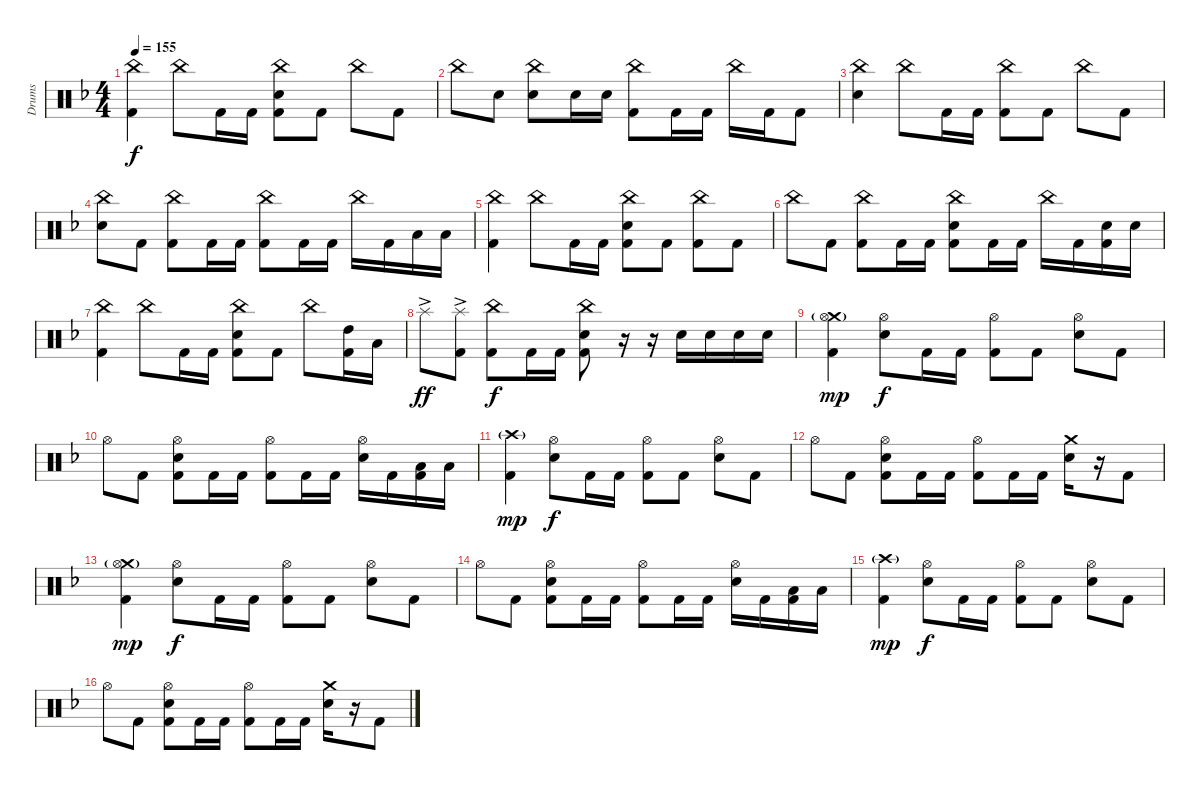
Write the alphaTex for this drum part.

\track ("Drums" "Drums") {instrument percussion}
\staff {score}
\articulation defaults
\ts (4 4)
\tempo 155
\clef neutral
\ks f
("China (hit)" "Kick (hit) 2").4{dy f} "China (hit)".8 "Kick (hit) 2".16 "Kick (hit) 2".16 ("China (hit)" "Electric Snare (hit)" "Kick (hit) 2").8 "Kick (hit) 2".8 "China (hit)".8 "Kick (hit) 2".8 |
"China (hit)".8 "Electric Snare (hit)".8 ("China (hit)" "Electric Snare (hit)").8 "Electric Snare (hit)".16 "Electric Snare (hit)".16 ("China (hit)" "Kick (hit) 2").8 "Kick (hit) 2".16 "Kick (hit) 2".16 "China (hit)".16 "Kick (hit) 2".16 "Kick (hit) 2".8 |
("China (hit)" "Electric Snare (hit)").4 "China (hit)".8 "Kick (hit) 2".16 "Kick (hit) 2".16 ("China (hit)" "Kick (hit) 2").8 "Kick (hit) 2".8 "China (hit)".8 "Kick (hit) 2".8 |
("China (hit)" "Electric Snare (hit)").8 "Kick (hit) 2".8 ("China (hit)" "Kick (hit) 2").8 "Kick (hit) 2".16 "Kick (hit) 2".16 ("China (hit)" "Kick (hit) 2").8 "Kick (hit) 2".16 "Kick (hit) 2".16 "China (hit)".16 "Kick (hit) 2".16 "Low Tom (hit)".16 "Low Tom (hit)".16 |
("China (hit)" "Kick (hit) 2").4 "China (hit)".8 "Kick (hit) 2".16 "Kick (hit) 2".16 ("China (hit)" "Electric Snare (hit)" "Kick (hit) 2").8 "Kick (hit) 2".8 ("China (hit)" "Kick (hit) 2").8 "Kick (hit) 2".8 |
"China (hit)".8 "Kick (hit) 2".8 ("China (hit)" "Kick (hit) 2").8 "Kick (hit) 2".16 "Kick (hit) 2".16 ("China (hit)" "Electric Snare (hit)" "Kick (hit) 2").8 "Kick (hit) 2".16 "Kick (hit) 2".16 "China (hit)".16 "Kick (hit) 2".16 ("Electric Snare (hit)" "Kick (hit) 2").16 "Electric Snare (hit)".16 |
("China (hit)" "Kick (hit) 2").4 "China (hit)".8 "Kick (hit) 2".16 "Kick (hit) 2".16 ("China (hit)" "Electric Snare (hit)" "Kick (hit) 2").8 "Kick (hit) 2".8 "China (hit)".8 ("High Tom (hit)" "Kick (hit) 2").16 "Low Tom (hit)".16 |
"Splash (hit)"{ac}.8{dy ff} ("Splash (hit)"{ac} "Kick (hit) 2").8 ("China (hit)" "Kick (hit) 2").8{dy f} "Kick (hit) 2".16 "Kick (hit) 2".16 ("China (hit)" "Electric Snare (hit)" "Kick (hit) 2").8 r.16 r.16 "Electric Snare (hit)".16 "Electric Snare (hit)".16 "Electric Snare (hit)".16 "Electric Snare (hit)".16 |
("Crash medium (hit)"{g} "Hi-Hat (open)" "Kick (hit) 2").4{dy mp} ("Hi-Hat (open)" "Electric Snare (hit)").8{dy f} "Kick (hit) 2".16 "Kick (hit) 2".16 ("Hi-Hat (open)" "Kick (hit) 2").8 "Kick (hit) 2".8 ("Hi-Hat (open)" "Electric Snare (hit)").8 "Kick (hit) 2".8 |
"Hi-Hat (open)".8 "Kick (hit) 2".8 ("Hi-Hat (open)" "Electric Snare (hit)" "Kick (hit) 2").8 "Kick (hit) 2".16 "Kick (hit) 2".16 ("Hi-Hat (open)" "Kick (hit) 2").8 "Kick (hit) 2".16 "Kick (hit) 2".16 ("Hi-Hat (open)" "Electric Snare (hit)").16 "Kick (hit) 2".16 ("Low Tom (hit)" "Kick (hit) 2").16 "Low Tom (hit)".16 |
("Crash high (hit)"{g} "Kick (hit) 2").4{dy mp} ("Hi-Hat (open)" "Electric Snare (hit)").8{dy f} "Kick (hit) 2".16 "Kick (hit) 2".16 ("Hi-Hat (open)" "Kick (hit) 2").8 "Kick (hit) 2".8 ("Hi-Hat (open)" "Electric Snare (hit)").8 "Kick (hit) 2".8 |
"Hi-Hat (open)".8 "Kick (hit) 2".8 ("Hi-Hat (open)" "Electric Snare (hit)" "Kick (hit) 2").8 "Kick (hit) 2".16 "Kick (hit) 2".16 ("Hi-Hat (open)" "Kick (hit) 2").8 "Kick (hit) 2".16 "Kick (hit) 2".16 ("Crash medium (hit)" "Electric Snare (hit)").16 r.16 "Kick (hit) 2".8 |
("Crash medium (hit)"{g} "Hi-Hat (open)" "Kick (hit) 2").4{dy mp} ("Hi-Hat (open)" "Electric Snare (hit)").8{dy f} "Kick (hit) 2".16 "Kick (hit) 2".16 ("Hi-Hat (open)" "Kick (hit) 2").8 "Kick (hit) 2".8 ("Hi-Hat (open)" "Electric Snare (hit)").8 "Kick (hit) 2".8 |
"Hi-Hat (open)".8 "Kick (hit) 2".8 ("Hi-Hat (open)" "Electric Snare (hit)" "Kick (hit) 2").8 "Kick (hit) 2".16 "Kick (hit) 2".16 ("Hi-Hat (open)" "Kick (hit) 2").8 "Kick (hit) 2".16 "Kick (hit) 2".16 ("Hi-Hat (open)" "Electric Snare (hit)").16 "Kick (hit) 2".16 ("Low Tom (hit)" "Kick (hit) 2").16 "Low Tom (hit)".16 |
("Crash high (hit)"{g} "Kick (hit) 2").4{dy mp} ("Hi-Hat (open)" "Electric Snare (hit)").8{dy f} "Kick (hit) 2".16 "Kick (hit) 2".16 ("Hi-Hat (open)" "Kick (hit) 2").8 "Kick (hit) 2".8 ("Hi-Hat (open)" "Electric Snare (hit)").8 "Kick (hit) 2".8 |
"Hi-Hat (open)".8 "Kick (hit) 2".8 ("Hi-Hat (open)" "Electric Snare (hit)" "Kick (hit) 2").8 "Kick (hit) 2".16 "Kick (hit) 2".16 ("Hi-Hat (open)" "Kick (hit) 2").8 "Kick (hit) 2".16 "Kick (hit) 2".16 ("Crash medium (hit)" "Electric Snare (hit)").16 r.16 "Kick (hit) 2".8
